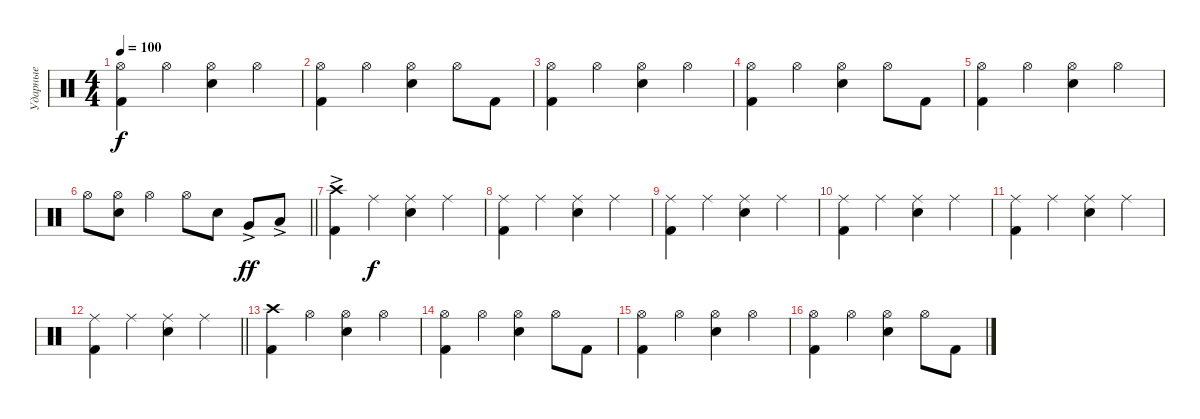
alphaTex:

\track ("Ударные" "Ударные") {instrument percussion}
\staff {score}
\articulation defaults
\ts (4 4)
\tempo 100
\clef neutral
\ks c
("Kick (hit) 2" "Hi-Hat (open)").4{dy f} "Hi-Hat (open)".4 ("Snare (hit) 2" "Hi-Hat (open)").4 "Hi-Hat (open)".4 |
("Kick (hit) 2" "Hi-Hat (open)").4 "Hi-Hat (open)".4 ("Snare (hit) 2" "Hi-Hat (open)").4 "Hi-Hat (open)".8 "Kick (hit) 2".8 |
("Kick (hit) 2" "Hi-Hat (open)").4 "Hi-Hat (open)".4 ("Snare (hit) 2" "Hi-Hat (open)").4 "Hi-Hat (open)".4 |
("Kick (hit) 2" "Hi-Hat (open)").4 "Hi-Hat (open)".4 ("Snare (hit) 2" "Hi-Hat (open)").4 "Hi-Hat (open)".8 "Kick (hit) 2".8 |
("Kick (hit) 2" "Hi-Hat (open)").4 "Hi-Hat (open)".4 ("Snare (hit) 2" "Hi-Hat (open)").4 "Hi-Hat (open)".4 |
\barLineRight lightlight "Hi-Hat (open)".8
("Snare (hit) 2" "Hi-Hat (open)").8 "Hi-Hat (open)".4 "Hi-Hat (open)".8 "Snare (hit) 2".8 "Very Low Tom (hit)"{ac}.8{dy ff} "Low Floor Tom (hit)"{ac}.8 |
("Kick (hit) 2" "Crash high (hit)"{ac}).4 "Ride (middle)".4{dy f} ("Snare (hit) 2" "Ride (middle)").4 "Ride (middle)".4 |
("Kick (hit) 2" "Ride (middle)").4 "Ride (middle)".4 ("Snare (hit) 2" "Ride (middle)").4 "Ride (middle)".4 |
("Kick (hit) 2" "Ride (middle)").4 "Ride (middle)".4 ("Snare (hit) 2" "Ride (middle)").4 "Ride (middle)".4 |
("Kick (hit) 2" "Ride (middle)").4 "Ride (middle)".4 ("Snare (hit) 2" "Ride (middle)").4 "Ride (middle)".4 |
("Kick (hit) 2" "Ride (middle)").4 "Ride (middle)".4 ("Snare (hit) 2" "Ride (middle)").4 "Ride (middle)".4 |
\barLineRight lightlight
("Kick (hit) 2" "Ride (middle)").4 "Ride (middle)".4 ("Snare (hit) 2" "Ride (middle)").4 "Ride (middle)".4 |
("Kick (hit) 2" "Crash high (hit)").4 "Hi-Hat (open)".4 ("Snare (hit) 2" "Hi-Hat (open)").4 "Hi-Hat (open)".4 |
("Kick (hit) 2" "Hi-Hat (open)").4 "Hi-Hat (open)".4 ("Snare (hit) 2" "Hi-Hat (open)").4 "Hi-Hat (open)".8 "Kick (hit) 2".8 |
("Kick (hit) 2" "Hi-Hat (open)").4 "Hi-Hat (open)".4 ("Snare (hit) 2" "Hi-Hat (open)").4 "Hi-Hat (open)".4 |
("Kick (hit) 2" "Hi-Hat (open)").4 "Hi-Hat (open)".4 ("Snare (hit) 2" "Hi-Hat (open)").4 "Hi-Hat (open)".8 "Kick (hit) 2".8
